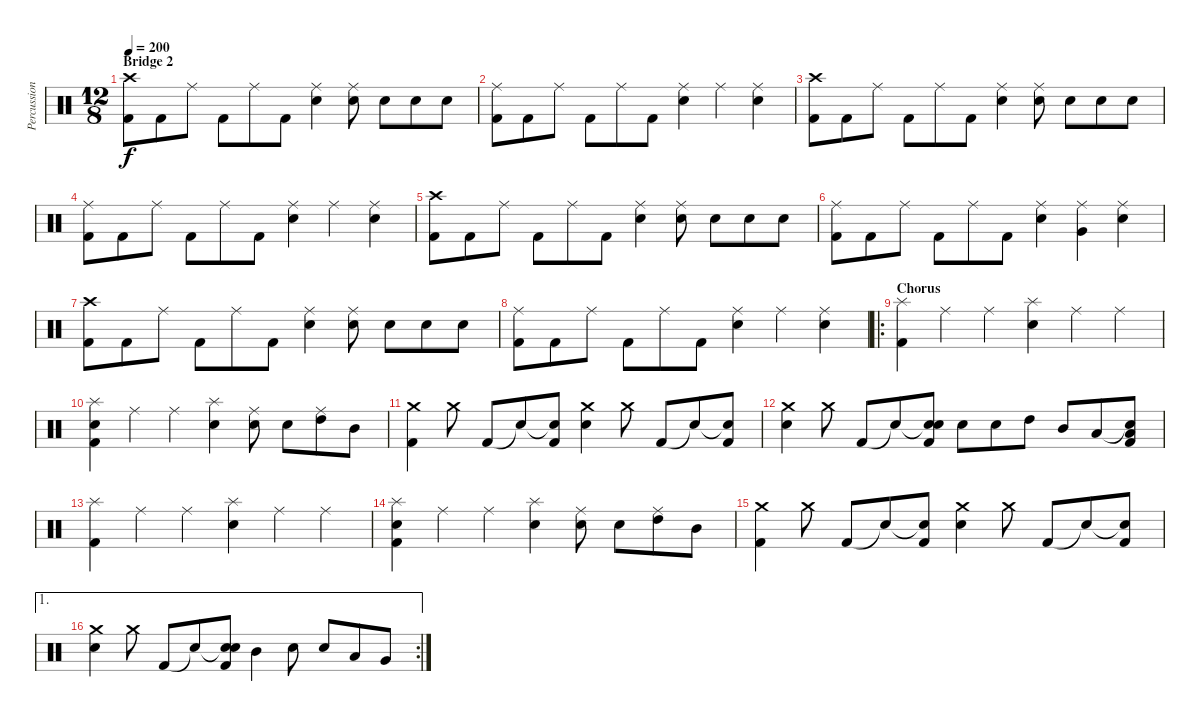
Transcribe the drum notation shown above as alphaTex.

\track ("Percussion" "Percussion") {instrument percussion}
\staff {score}
\articulation defaults
\ts (12 8)
\section ("" "Bridge 2")
\tempo 200
\clef neutral
\ks c
("Crash high (hit)" "Kick (hit) 2").8{dy f} "Kick (hit) 2".8 "Ride (middle)".8 "Kick (hit) 2".8 "Ride (middle)".8 "Kick (hit) 2".8 ("Ride (middle)" "Electric Snare (hit)").4 ("Ride (middle)" "Electric Snare (hit)").8 "Electric Snare (hit)".8 "Electric Snare (hit)".8 "Electric Snare (hit)".8 |
("Ride (middle)" "Kick (hit) 2").8 "Kick (hit) 2".8 "Ride (middle)".8 "Kick (hit) 2".8 "Ride (middle)".8 "Kick (hit) 2".8 ("Ride (middle)" "Electric Snare (hit)").4 "Ride (middle)".4 ("Ride (middle)" "Electric Snare (hit)").4 |
("Crash high (hit)" "Kick (hit) 2").8 "Kick (hit) 2".8 "Ride (middle)".8 "Kick (hit) 2".8 "Ride (middle)".8 "Kick (hit) 2".8 ("Ride (middle)" "Electric Snare (hit)").4 ("Ride (middle)" "Electric Snare (hit)").8 "Electric Snare (hit)".8 "Electric Snare (hit)".8 "Electric Snare (hit)".8 |
("Ride (middle)" "Kick (hit) 2").8 "Kick (hit) 2".8 "Ride (middle)".8 "Kick (hit) 2".8 "Ride (middle)".8 "Kick (hit) 2".8 ("Ride (middle)" "Electric Snare (hit)").4 "Ride (middle)".4 ("Ride (middle)" "Electric Snare (hit)").4 |
("Crash high (hit)" "Kick (hit) 2").8 "Kick (hit) 2".8 "Ride (middle)".8 "Kick (hit) 2".8 "Ride (middle)".8 "Kick (hit) 2".8 ("Ride (middle)" "Electric Snare (hit)").4 ("Ride (middle)" "Electric Snare (hit)").8 "Electric Snare (hit)".8 "Electric Snare (hit)".8 "Electric Snare (hit)".8 |
("Ride (middle)" "Kick (hit) 2").8 "Kick (hit) 2".8 "Ride (middle)".8 "Kick (hit) 2".8 "Ride (middle)".8 "Kick (hit) 2".8 ("Ride (middle)" "Electric Snare (hit)").4 ("Ride (middle)" "Very Low Tom (hit)").4 ("Ride (middle)" "Electric Snare (hit)").4 |
("Crash high (hit)" "Kick (hit) 2").8 "Kick (hit) 2".8 "Ride (middle)".8 "Kick (hit) 2".8 "Ride (middle)".8 "Kick (hit) 2".8 ("Ride (middle)" "Electric Snare (hit)").4 ("Ride (middle)" "Electric Snare (hit)").8 "Electric Snare (hit)".8 "Electric Snare (hit)".8 "Electric Snare (hit)".8 |
("Ride (middle)" "Kick (hit) 2").8 "Kick (hit) 2".8 "Ride (middle)".8 "Kick (hit) 2".8 "Ride (middle)".8 "Kick (hit) 2".8 ("Ride (middle)" "Electric Snare (hit)").4 "Ride (middle)".4 ("Ride (middle)" "Electric Snare (hit)").4 |
\ro
\section ("" "Chorus")
("Splash (hit)" "Kick (hit) 2").4 "Ride (middle)".4 "Ride (middle)".4 ("Splash (hit)" "Electric Snare (hit)").4 "Ride (middle)".4 "Ride (middle)".4 |
("Splash (hit)" "Electric Snare (hit)" "Kick (hit) 2").4 "Ride (middle)".4 "Ride (middle)".4 ("Splash (hit)" "Electric Snare (hit)").4 ("Ride (middle)" "Electric Snare (hit)").8 "Electric Snare (hit)".8 ("Ride (middle)" "High Tom (hit)").8 "Mid Tom (hit)".8 |
("Crash medium (hit)" "Kick (hit) 2").4 "Crash medium (hit)".8 "Kick (hit) 2".8 "Snare (hit)"{t}.8 ("Snare (hit)"{t} "Kick (hit) 2").8 ("Crash medium (hit)" "Electric Snare (hit)").4 "Crash medium (hit)".8 "Kick (hit) 2".8 "Snare (hit)"{t}.8 ("Snare (hit)"{t} "Kick (hit) 2").8 |
("Crash medium (hit)" "Electric Snare (hit)").4 "Crash medium (hit)".8 "Kick (hit) 2".8 "Snare (hit)"{t}.8 ("Snare (hit)"{t} "Electric Snare (hit)" "Kick (hit) 2").8 "Electric Snare (hit)".8 "Electric Snare (hit)".8 "High Tom (hit)".8 "Mid Tom (hit)".8 "Low Tom (hit)".8 ("Snare (hit)"{t} "Low Tom (hit)" "Kick (hit) 2").8 |
("Splash (hit)" "Kick (hit) 2").4 "Ride (middle)".4 "Ride (middle)".4 ("Splash (hit)" "Electric Snare (hit)").4 "Ride (middle)".4 "Ride (middle)".4 |
("Splash (hit)" "Electric Snare (hit)" "Kick (hit) 2").4 "Ride (middle)".4 "Ride (middle)".4 ("Splash (hit)" "Electric Snare (hit)").4 ("Ride (middle)" "Electric Snare (hit)").8 "Electric Snare (hit)".8 ("Ride (middle)" "High Tom (hit)").8 "Mid Tom (hit)".8 |
("Crash medium (hit)" "Kick (hit) 2").4 "Crash medium (hit)".8 "Kick (hit) 2".8 "Snare (hit)"{t}.8 ("Snare (hit)"{t} "Kick (hit) 2").8 ("Crash medium (hit)" "Electric Snare (hit)").4 "Crash medium (hit)".8 "Kick (hit) 2".8 "Snare (hit)"{t}.8 ("Snare (hit)"{t} "Kick (hit) 2").8 |
\ae 1
\rc 2
("Crash medium (hit)" "Electric Snare (hit)").4 "Crash medium (hit)".8 "Kick (hit) 2".8 "Snare (hit)"{t}.8 ("Snare (hit)"{t} "Electric Snare (hit)" "Kick (hit) 2").8 "Mid Tom (hit)".4 "Electric Snare (hit)".8 "Electric Snare (hit)".8 "Low Tom (hit)".8 "Very Low Tom (hit)".8
